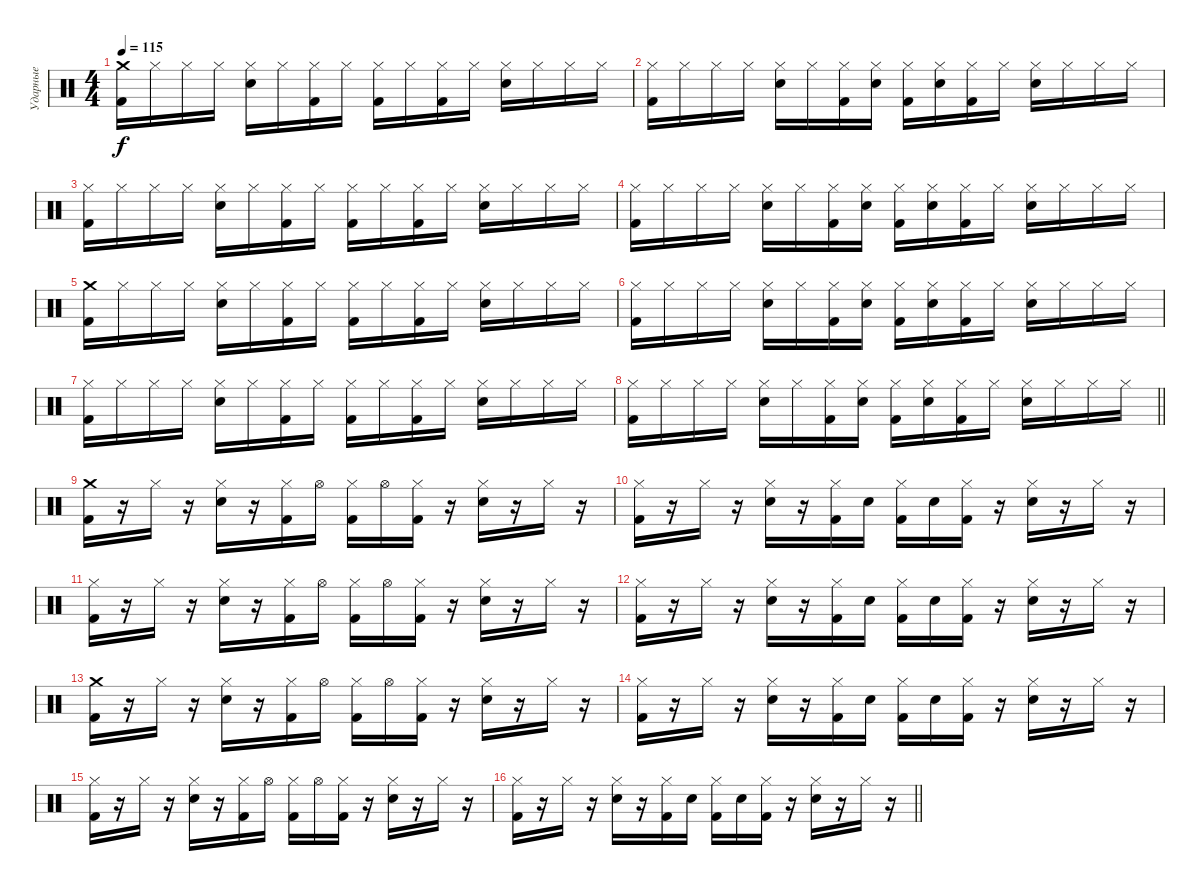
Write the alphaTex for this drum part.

\track ("Ударные" "Ударные") {instrument percussion}
\staff {score}
\articulation defaults
\ts (4 4)
\tempo 115
\clef neutral
\ks c
("Crash medium (hit)" "Kick (hit) 2").16{dy f} "Hi-Hat (closed)".16 "Hi-Hat (closed)".16 "Hi-Hat (closed)".16 ("Hi-Hat (closed)" "Snare (hit) 2").16 "Hi-Hat (closed)".16 ("Hi-Hat (closed)" "Kick (hit) 2").16 "Hi-Hat (closed)".16 ("Hi-Hat (closed)" "Kick (hit) 2").16 "Hi-Hat (closed)".16 ("Hi-Hat (closed)" "Kick (hit) 2").16 "Hi-Hat (closed)".16 ("Hi-Hat (closed)" "Snare (hit) 2").16 "Hi-Hat (closed)".16 "Hi-Hat (closed)".16 "Hi-Hat (closed)".16 |
("Hi-Hat (closed)" "Kick (hit) 2").16 "Hi-Hat (closed)".16 "Hi-Hat (closed)".16 "Hi-Hat (closed)".16 ("Hi-Hat (closed)" "Snare (hit) 2").16 "Hi-Hat (closed)".16 ("Hi-Hat (closed)" "Kick (hit) 2").16 ("Hi-Hat (closed)" "Snare (hit) 2").16 ("Hi-Hat (closed)" "Kick (hit) 2").16 ("Hi-Hat (closed)" "Snare (hit) 2").16 ("Hi-Hat (closed)" "Kick (hit) 2").16 "Hi-Hat (closed)".16 ("Hi-Hat (closed)" "Snare (hit) 2").16 "Hi-Hat (closed)".16 "Hi-Hat (closed)".16 "Hi-Hat (closed)".16 |
("Hi-Hat (closed)" "Kick (hit) 2").16 "Hi-Hat (closed)".16 "Hi-Hat (closed)".16 "Hi-Hat (closed)".16 ("Hi-Hat (closed)" "Snare (hit) 2").16 "Hi-Hat (closed)".16 ("Hi-Hat (closed)" "Kick (hit) 2").16 "Hi-Hat (closed)".16 ("Hi-Hat (closed)" "Kick (hit) 2").16 "Hi-Hat (closed)".16 ("Hi-Hat (closed)" "Kick (hit) 2").16 "Hi-Hat (closed)".16 ("Hi-Hat (closed)" "Snare (hit) 2").16 "Hi-Hat (closed)".16 "Hi-Hat (closed)".16 "Hi-Hat (closed)".16 |
("Hi-Hat (closed)" "Kick (hit) 2").16 "Hi-Hat (closed)".16 "Hi-Hat (closed)".16 "Hi-Hat (closed)".16 ("Hi-Hat (closed)" "Snare (hit) 2").16 "Hi-Hat (closed)".16 ("Hi-Hat (closed)" "Kick (hit) 2").16 ("Hi-Hat (closed)" "Snare (hit) 2").16 ("Hi-Hat (closed)" "Kick (hit) 2").16 ("Hi-Hat (closed)" "Snare (hit) 2").16 ("Hi-Hat (closed)" "Kick (hit) 2").16 "Hi-Hat (closed)".16 ("Hi-Hat (closed)" "Snare (hit) 2").16 "Hi-Hat (closed)".16 "Hi-Hat (closed)".16 "Hi-Hat (closed)".16 |
("Crash medium (hit)" "Kick (hit) 2").16 "Hi-Hat (closed)".16 "Hi-Hat (closed)".16 "Hi-Hat (closed)".16 ("Hi-Hat (closed)" "Snare (hit) 2").16 "Hi-Hat (closed)".16 ("Hi-Hat (closed)" "Kick (hit) 2").16 "Hi-Hat (closed)".16 ("Hi-Hat (closed)" "Kick (hit) 2").16 "Hi-Hat (closed)".16 ("Hi-Hat (closed)" "Kick (hit) 2").16 "Hi-Hat (closed)".16 ("Hi-Hat (closed)" "Snare (hit) 2").16 "Hi-Hat (closed)".16 "Hi-Hat (closed)".16 "Hi-Hat (closed)".16 |
("Hi-Hat (closed)" "Kick (hit) 2").16 "Hi-Hat (closed)".16 "Hi-Hat (closed)".16 "Hi-Hat (closed)".16 ("Hi-Hat (closed)" "Snare (hit) 2").16 "Hi-Hat (closed)".16 ("Hi-Hat (closed)" "Kick (hit) 2").16 ("Hi-Hat (closed)" "Snare (hit) 2").16 ("Hi-Hat (closed)" "Kick (hit) 2").16 ("Hi-Hat (closed)" "Snare (hit) 2").16 ("Hi-Hat (closed)" "Kick (hit) 2").16 "Hi-Hat (closed)".16 ("Hi-Hat (closed)" "Snare (hit) 2").16 "Hi-Hat (closed)".16 "Hi-Hat (closed)".16 "Hi-Hat (closed)".16 |
("Hi-Hat (closed)" "Kick (hit) 2").16 "Hi-Hat (closed)".16 "Hi-Hat (closed)".16 "Hi-Hat (closed)".16 ("Hi-Hat (closed)" "Snare (hit) 2").16 "Hi-Hat (closed)".16 ("Hi-Hat (closed)" "Kick (hit) 2").16 "Hi-Hat (closed)".16 ("Hi-Hat (closed)" "Kick (hit) 2").16 "Hi-Hat (closed)".16 ("Hi-Hat (closed)" "Kick (hit) 2").16 "Hi-Hat (closed)".16 ("Hi-Hat (closed)" "Snare (hit) 2").16 "Hi-Hat (closed)".16 "Hi-Hat (closed)".16 "Hi-Hat (closed)".16 |
\barLineRight lightlight
("Hi-Hat (closed)" "Kick (hit) 2").16 "Hi-Hat (closed)".16 "Hi-Hat (closed)".16 "Hi-Hat (closed)".16 ("Hi-Hat (closed)" "Snare (hit) 2").16 "Hi-Hat (closed)".16 ("Hi-Hat (closed)" "Kick (hit) 2").16 ("Hi-Hat (closed)" "Snare (hit) 2").16 ("Hi-Hat (closed)" "Kick (hit) 2").16 ("Hi-Hat (closed)" "Snare (hit) 2").16 ("Hi-Hat (closed)" "Kick (hit) 2").16 "Hi-Hat (closed)".16 ("Hi-Hat (closed)" "Snare (hit) 2").16 "Hi-Hat (closed)".16 "Hi-Hat (closed)".16 "Hi-Hat (closed)".16 |
\section ("" "")
("Crash medium (hit)" "Kick (hit) 2").16 r.16 "Hi-Hat (closed)".16 r.16 ("Hi-Hat (closed)" "Snare (hit) 2").16 r.16 ("Hi-Hat (closed)" "Kick (hit) 2").16 "Hi-Hat (open)".16 ("Hi-Hat (closed)" "Kick (hit) 2").16 "Hi-Hat (open)".16 ("Hi-Hat (closed)" "Kick (hit) 2").16 r.16 ("Hi-Hat (closed)" "Snare (hit) 2").16 r.16 "Hi-Hat (closed)".16 r.16 |
("Hi-Hat (closed)" "Kick (hit) 2").16 r.16 "Hi-Hat (closed)".16 r.16 ("Hi-Hat (closed)" "Snare (hit) 2").16 r.16 ("Hi-Hat (closed)" "Kick (hit) 2").16 "Snare (hit) 2".16 ("Hi-Hat (closed)" "Kick (hit) 2").16 "Snare (hit) 2".16 ("Hi-Hat (closed)" "Kick (hit) 2").16 r.16 ("Hi-Hat (closed)" "Snare (hit) 2").16 r.16 "Hi-Hat (closed)".16 r.16 |
("Hi-Hat (closed)" "Kick (hit) 2").16 r.16 "Hi-Hat (closed)".16 r.16 ("Hi-Hat (closed)" "Snare (hit) 2").16 r.16 ("Hi-Hat (closed)" "Kick (hit) 2").16 "Hi-Hat (open)".16 ("Hi-Hat (closed)" "Kick (hit) 2").16 "Hi-Hat (open)".16 ("Hi-Hat (closed)" "Kick (hit) 2").16 r.16 ("Hi-Hat (closed)" "Snare (hit) 2").16 r.16 "Hi-Hat (closed)".16 r.16 |
("Hi-Hat (closed)" "Kick (hit) 2").16 r.16 "Hi-Hat (closed)".16 r.16 ("Hi-Hat (closed)" "Snare (hit) 2").16 r.16 ("Hi-Hat (closed)" "Kick (hit) 2").16 "Snare (hit) 2".16 ("Hi-Hat (closed)" "Kick (hit) 2").16 "Snare (hit) 2".16 ("Hi-Hat (closed)" "Kick (hit) 2").16 r.16 ("Hi-Hat (closed)" "Snare (hit) 2").16 r.16 "Hi-Hat (closed)".16 r.16 |
("Crash medium (hit)" "Kick (hit) 2").16 r.16 "Hi-Hat (closed)".16 r.16 ("Hi-Hat (closed)" "Snare (hit) 2").16 r.16 ("Hi-Hat (closed)" "Kick (hit) 2").16 "Hi-Hat (open)".16 ("Hi-Hat (closed)" "Kick (hit) 2").16 "Hi-Hat (open)".16 ("Hi-Hat (closed)" "Kick (hit) 2").16 r.16 ("Hi-Hat (closed)" "Snare (hit) 2").16 r.16 "Hi-Hat (closed)".16 r.16 |
("Hi-Hat (closed)" "Kick (hit) 2").16 r.16 "Hi-Hat (closed)".16 r.16 ("Hi-Hat (closed)" "Snare (hit) 2").16 r.16 ("Hi-Hat (closed)" "Kick (hit) 2").16 "Snare (hit) 2".16 ("Hi-Hat (closed)" "Kick (hit) 2").16 "Snare (hit) 2".16 ("Hi-Hat (closed)" "Kick (hit) 2").16 r.16 ("Hi-Hat (closed)" "Snare (hit) 2").16 r.16 "Hi-Hat (closed)".16 r.16 |
("Hi-Hat (closed)" "Kick (hit) 2").16 r.16 "Hi-Hat (closed)".16 r.16 ("Hi-Hat (closed)" "Snare (hit) 2").16 r.16 ("Hi-Hat (closed)" "Kick (hit) 2").16 "Hi-Hat (open)".16 ("Hi-Hat (closed)" "Kick (hit) 2").16 "Hi-Hat (open)".16 ("Hi-Hat (closed)" "Kick (hit) 2").16 r.16 ("Hi-Hat (closed)" "Snare (hit) 2").16 r.16 "Hi-Hat (closed)".16 r.16 |
\barLineRight lightlight
("Hi-Hat (closed)" "Kick (hit) 2").16 r.16 "Hi-Hat (closed)".16 r.16 ("Hi-Hat (closed)" "Snare (hit) 2").16 r.16 ("Hi-Hat (closed)" "Kick (hit) 2").16 "Snare (hit) 2".16 ("Hi-Hat (closed)" "Kick (hit) 2").16 "Snare (hit) 2".16 ("Hi-Hat (closed)" "Kick (hit) 2").16 r.16 ("Hi-Hat (closed)" "Snare (hit) 2").16 r.16 "Hi-Hat (closed)".16 r.16
